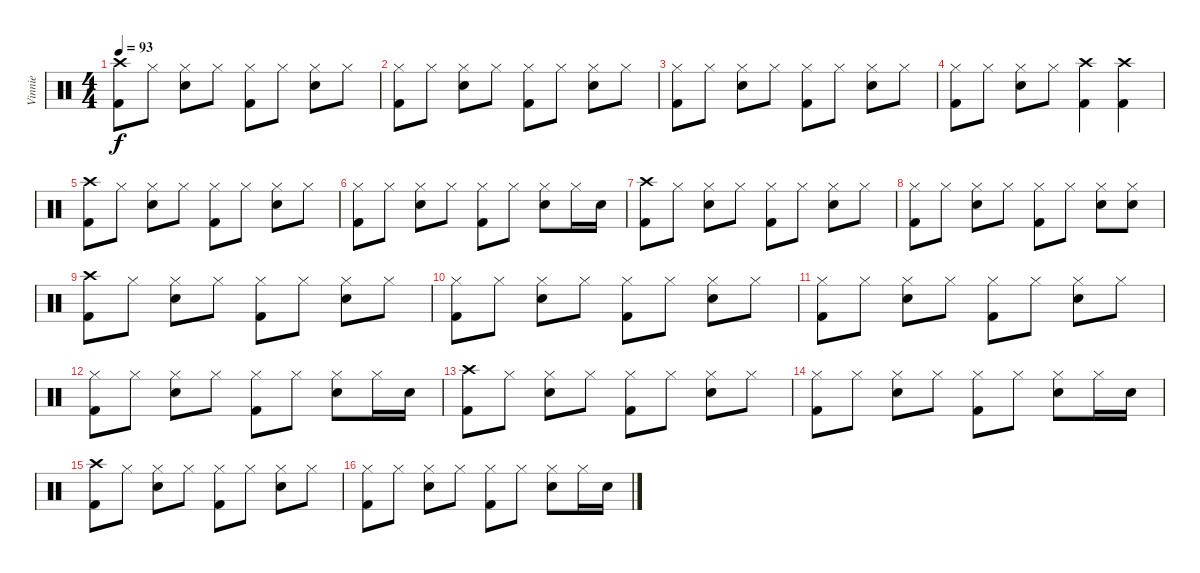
\track ("Vinnie" "Vinnie") {instrument percussion}
\staff {score}
\articulation defaults
\ts (4 4)
\tempo 93
\clef neutral
\ks c
("Crash high (hit)" "Kick (hit) 2").8{dy f} "Hi-Hat (closed)".8 ("Hi-Hat (closed)" "Electric Snare (hit)").8 "Hi-Hat (closed)".8 ("Hi-Hat (closed)" "Kick (hit) 2").8 "Hi-Hat (closed)".8 ("Hi-Hat (closed)" "Electric Snare (hit)").8 "Hi-Hat (closed)".8 |
("Hi-Hat (closed)" "Kick (hit) 2").8 "Hi-Hat (closed)".8 ("Hi-Hat (closed)" "Electric Snare (hit)").8 "Hi-Hat (closed)".8 ("Hi-Hat (closed)" "Kick (hit) 2").8 "Hi-Hat (closed)".8 ("Hi-Hat (closed)" "Electric Snare (hit)").8 "Hi-Hat (closed)".8 |
("Hi-Hat (closed)" "Kick (hit) 2").8 "Hi-Hat (closed)".8 ("Hi-Hat (closed)" "Electric Snare (hit)").8 "Hi-Hat (closed)".8 ("Hi-Hat (closed)" "Kick (hit) 2").8 "Hi-Hat (closed)".8 ("Hi-Hat (closed)" "Electric Snare (hit)").8 "Hi-Hat (closed)".8 |
("Hi-Hat (closed)" "Kick (hit) 2").8 "Hi-Hat (closed)".8 ("Hi-Hat (closed)" "Electric Snare (hit)").8 "Hi-Hat (closed)".8 ("Crash high (hit)" "Kick (hit) 2").4 ("Crash high (hit)" "Kick (hit) 2").4 |
("Crash high (hit)" "Kick (hit) 2").8 "Hi-Hat (closed)".8 ("Hi-Hat (closed)" "Electric Snare (hit)").8 "Hi-Hat (closed)".8 ("Hi-Hat (closed)" "Kick (hit) 2").8 "Hi-Hat (closed)".8 ("Hi-Hat (closed)" "Electric Snare (hit)").8 "Hi-Hat (closed)".8 |
("Hi-Hat (closed)" "Kick (hit) 2").8 "Hi-Hat (closed)".8 ("Hi-Hat (closed)" "Electric Snare (hit)").8 "Hi-Hat (closed)".8 ("Hi-Hat (closed)" "Kick (hit) 2").8 "Hi-Hat (closed)".8 ("Hi-Hat (closed)" "Electric Snare (hit)").8 "Hi-Hat (closed)".16 "Electric Snare (hit)".16 |
("Crash high (hit)" "Kick (hit) 2").8 "Hi-Hat (closed)".8 ("Hi-Hat (closed)" "Electric Snare (hit)").8 "Hi-Hat (closed)".8 ("Hi-Hat (closed)" "Kick (hit) 2").8 "Hi-Hat (closed)".8 ("Hi-Hat (closed)" "Electric Snare (hit)").8 "Hi-Hat (closed)".8 |
("Hi-Hat (closed)" "Kick (hit) 2").8 "Hi-Hat (closed)".8 ("Hi-Hat (closed)" "Electric Snare (hit)").8 "Hi-Hat (closed)".8 ("Hi-Hat (closed)" "Kick (hit) 2").8 "Hi-Hat (closed)".8 ("Hi-Hat (closed)" "Electric Snare (hit)").8 ("Hi-Hat (closed)" "Electric Snare (hit)").8 |
("Crash high (hit)" "Kick (hit) 2").8 "Hi-Hat (closed)".8 ("Hi-Hat (closed)" "Electric Snare (hit)").8 "Hi-Hat (closed)".8 ("Hi-Hat (closed)" "Kick (hit) 2").8 "Hi-Hat (closed)".8 ("Hi-Hat (closed)" "Electric Snare (hit)").8 "Hi-Hat (closed)".8 |
("Hi-Hat (closed)" "Kick (hit) 2").8 "Hi-Hat (closed)".8 ("Hi-Hat (closed)" "Electric Snare (hit)").8 "Hi-Hat (closed)".8 ("Hi-Hat (closed)" "Kick (hit) 2").8 "Hi-Hat (closed)".8 ("Hi-Hat (closed)" "Electric Snare (hit)").8 "Hi-Hat (closed)".8 |
("Hi-Hat (closed)" "Kick (hit) 2").8 "Hi-Hat (closed)".8 ("Hi-Hat (closed)" "Electric Snare (hit)").8 "Hi-Hat (closed)".8 ("Hi-Hat (closed)" "Kick (hit) 2").8 "Hi-Hat (closed)".8 ("Hi-Hat (closed)" "Electric Snare (hit)").8 "Hi-Hat (closed)".8 |
("Hi-Hat (closed)" "Kick (hit) 2").8 "Hi-Hat (closed)".8 ("Hi-Hat (closed)" "Electric Snare (hit)").8 "Hi-Hat (closed)".8 ("Hi-Hat (closed)" "Kick (hit) 2").8 "Hi-Hat (closed)".8 ("Hi-Hat (closed)" "Electric Snare (hit)").8 "Hi-Hat (closed)".16 "Electric Snare (hit)".16 |
("Crash high (hit)" "Kick (hit) 2").8 "Hi-Hat (closed)".8 ("Hi-Hat (closed)" "Electric Snare (hit)").8 "Hi-Hat (closed)".8 ("Hi-Hat (closed)" "Kick (hit) 2").8 "Hi-Hat (closed)".8 ("Hi-Hat (closed)" "Electric Snare (hit)").8 "Hi-Hat (closed)".8 |
("Hi-Hat (closed)" "Kick (hit) 2").8 "Hi-Hat (closed)".8 ("Hi-Hat (closed)" "Electric Snare (hit)").8 "Hi-Hat (closed)".8 ("Hi-Hat (closed)" "Kick (hit) 2").8 "Hi-Hat (closed)".8 ("Hi-Hat (closed)" "Electric Snare (hit)").8 "Hi-Hat (closed)".16 "Electric Snare (hit)".16 |
("Crash high (hit)" "Kick (hit) 2").8 "Hi-Hat (closed)".8 ("Hi-Hat (closed)" "Electric Snare (hit)").8 "Hi-Hat (closed)".8 ("Hi-Hat (closed)" "Kick (hit) 2").8 "Hi-Hat (closed)".8 ("Hi-Hat (closed)" "Electric Snare (hit)").8 "Hi-Hat (closed)".8 |
("Hi-Hat (closed)" "Kick (hit) 2").8 "Hi-Hat (closed)".8 ("Hi-Hat (closed)" "Electric Snare (hit)").8 "Hi-Hat (closed)".8 ("Hi-Hat (closed)" "Kick (hit) 2").8 "Hi-Hat (closed)".8 ("Hi-Hat (closed)" "Electric Snare (hit)").8 "Hi-Hat (closed)".16 "Electric Snare (hit)".16
